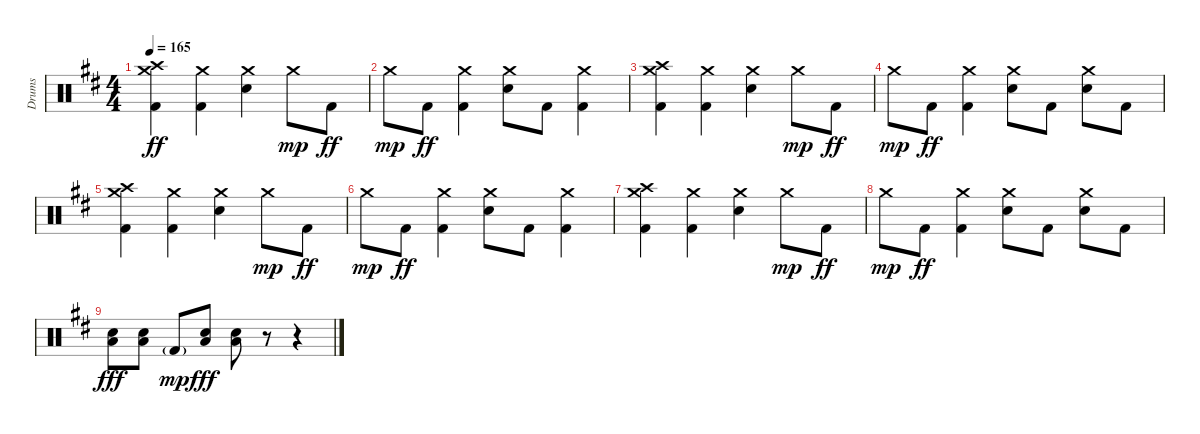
\track ("Drums" "Drums") {instrument percussion}
\staff {score}
\articulation defaults
\ts (4 4)
\tempo 165
\clef neutral
\ks d
("Crash high (hit)" "Crash medium (hit)" "Kick (hit) 2").4{dy ff} ("Crash medium (hit)" "Kick (hit) 2").4 ("Crash medium (hit)" "Electric Snare (hit)").4 "Crash medium (hit)".8{dy mp} "Kick (hit) 2".8{dy ff} |
"Crash medium (hit)".8{dy mp} "Kick (hit) 2".8{dy ff} ("Crash medium (hit)" "Kick (hit) 2").4 ("Crash medium (hit)" "Electric Snare (hit)").8 "Kick (hit) 2".8 ("Crash medium (hit)" "Kick (hit) 2").4 |
("Crash high (hit)" "Crash medium (hit)" "Kick (hit) 2").4 ("Crash medium (hit)" "Kick (hit) 2").4 ("Crash medium (hit)" "Electric Snare (hit)").4 "Crash medium (hit)".8{dy mp} "Kick (hit) 2".8{dy ff} |
"Crash medium (hit)".8{dy mp} "Kick (hit) 2".8{dy ff} ("Crash medium (hit)" "Kick (hit) 2").4 ("Crash medium (hit)" "Electric Snare (hit)").8 "Kick (hit) 2".8 ("Crash medium (hit)" "Electric Snare (hit)").8 "Kick (hit) 2".8 |
("Crash high (hit)" "Crash medium (hit)" "Kick (hit) 2").4 ("Crash medium (hit)" "Kick (hit) 2").4 ("Crash medium (hit)" "Electric Snare (hit)").4 "Crash medium (hit)".8{dy mp} "Kick (hit) 2".8{dy ff} |
"Crash medium (hit)".8{dy mp} "Kick (hit) 2".8{dy ff} ("Crash medium (hit)" "Kick (hit) 2").4 ("Crash medium (hit)" "Electric Snare (hit)").8 "Kick (hit) 2".8 ("Crash medium (hit)" "Kick (hit) 2").4 |
("Crash high (hit)" "Crash medium (hit)" "Kick (hit) 2").4 ("Crash medium (hit)" "Kick (hit) 2").4 ("Crash medium (hit)" "Electric Snare (hit)").4 "Crash medium (hit)".8{dy mp} "Kick (hit) 2".8{dy ff} |
"Crash medium (hit)".8{dy mp} "Kick (hit) 2".8{dy ff} ("Crash medium (hit)" "Kick (hit) 2").4 ("Crash medium (hit)" "Electric Snare (hit)").8 "Kick (hit) 2".8 ("Crash medium (hit)" "Electric Snare (hit)").8 "Kick (hit) 2".8 |
("Electric Snare (hit)" "Low Floor Tom (hit)").8{dy fff} ("Electric Snare (hit)" "Low Floor Tom (hit)").8 "Kick (hit) 2"{g}.8{dy mp} ("Electric Snare (hit)" "Low Floor Tom (hit)").8{dy fff} ("Electric Snare (hit)" "Low Floor Tom (hit)").8 r.8 r.4
